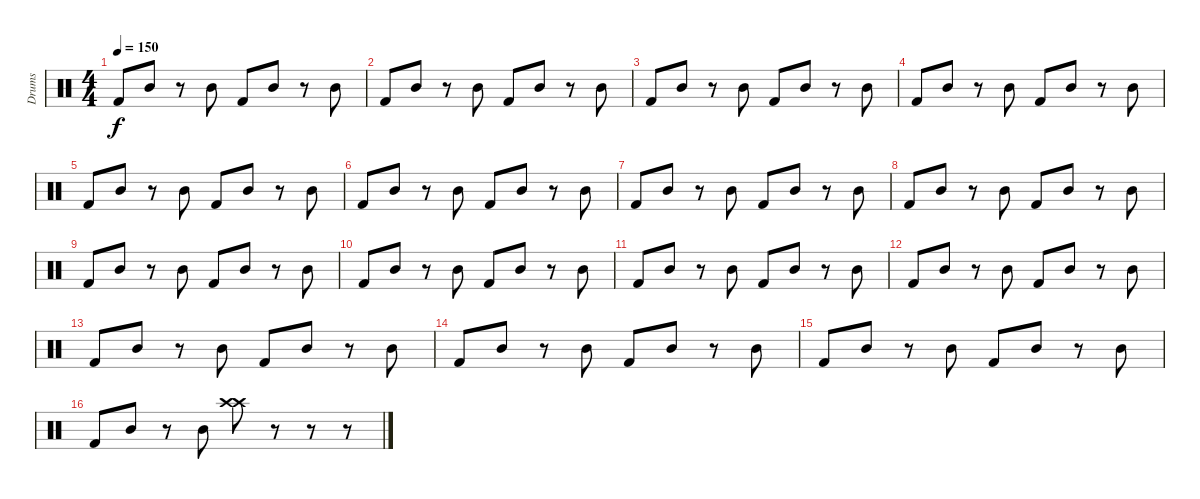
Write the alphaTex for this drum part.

\track ("Drums" "Drums") {instrument percussion}
\staff {score}
\articulation defaults
\ts (4 4)
\tempo 150
\clef neutral
\ks c "Kick (hit) 2".8{dy f} "Mid Tom (hit)".8
r.8 "Mid Tom (hit)".8 "Kick (hit) 2".8 "Mid Tom (hit)".8 r.8 "Mid Tom (hit)".8 |
"Kick (hit) 2".8 "Mid Tom (hit)".8 r.8 "Mid Tom (hit)".8 "Kick (hit) 2".8 "Mid Tom (hit)".8 r.8 "Mid Tom (hit)".8 |
"Kick (hit) 2".8 "Mid Tom (hit)".8 r.8 "Mid Tom (hit)".8 "Kick (hit) 2".8 "Mid Tom (hit)".8 r.8 "Mid Tom (hit)".8 |
"Kick (hit) 2".8 "Mid Tom (hit)".8 r.8 "Mid Tom (hit)".8 "Kick (hit) 2".8 "Mid Tom (hit)".8 r.8 "Mid Tom (hit)".8 |
"Kick (hit) 2".8 "Mid Tom (hit)".8 r.8 "Mid Tom (hit)".8 "Kick (hit) 2".8 "Mid Tom (hit)".8 r.8 "Mid Tom (hit)".8 |
"Kick (hit) 2".8 "Mid Tom (hit)".8 r.8 "Mid Tom (hit)".8 "Kick (hit) 2".8 "Mid Tom (hit)".8 r.8 "Mid Tom (hit)".8 |
"Kick (hit) 2".8 "Mid Tom (hit)".8 r.8 "Mid Tom (hit)".8 "Kick (hit) 2".8 "Mid Tom (hit)".8 r.8 "Mid Tom (hit)".8 |
"Kick (hit) 2".8 "Mid Tom (hit)".8 r.8 "Mid Tom (hit)".8 "Kick (hit) 2".8 "Mid Tom (hit)".8 r.8 "Mid Tom (hit)".8 |
"Kick (hit) 2".8 "Mid Tom (hit)".8 r.8 "Mid Tom (hit)".8 "Kick (hit) 2".8 "Mid Tom (hit)".8 r.8 "Mid Tom (hit)".8 |
"Kick (hit) 2".8 "Mid Tom (hit)".8 r.8 "Mid Tom (hit)".8 "Kick (hit) 2".8 "Mid Tom (hit)".8 r.8 "Mid Tom (hit)".8 |
"Kick (hit) 2".8 "Mid Tom (hit)".8 r.8 "Mid Tom (hit)".8 "Kick (hit) 2".8 "Mid Tom (hit)".8 r.8 "Mid Tom (hit)".8 |
"Kick (hit) 2".8 "Mid Tom (hit)".8 r.8 "Mid Tom (hit)".8 "Kick (hit) 2".8 "Mid Tom (hit)".8 r.8 "Mid Tom (hit)".8 |
"Kick (hit) 2".8 "Mid Tom (hit)".8 r.8 "Mid Tom (hit)".8 "Kick (hit) 2".8 "Mid Tom (hit)".8 r.8 "Mid Tom (hit)".8 |
"Kick (hit) 2".8 "Mid Tom (hit)".8 r.8 "Mid Tom (hit)".8 "Kick (hit) 2".8 "Mid Tom (hit)".8 r.8 "Mid Tom (hit)".8 |
"Kick (hit) 2".8 "Mid Tom (hit)".8 r.8 "Mid Tom (hit)".8 "Kick (hit) 2".8 "Mid Tom (hit)".8 r.8 "Mid Tom (hit)".8 |
"Kick (hit) 2".8 "Mid Tom (hit)".8 r.8 "Mid Tom (hit)".8 ("Crash high (hit)" "Crash high (hit)").8 r.8 r.8 r.8
